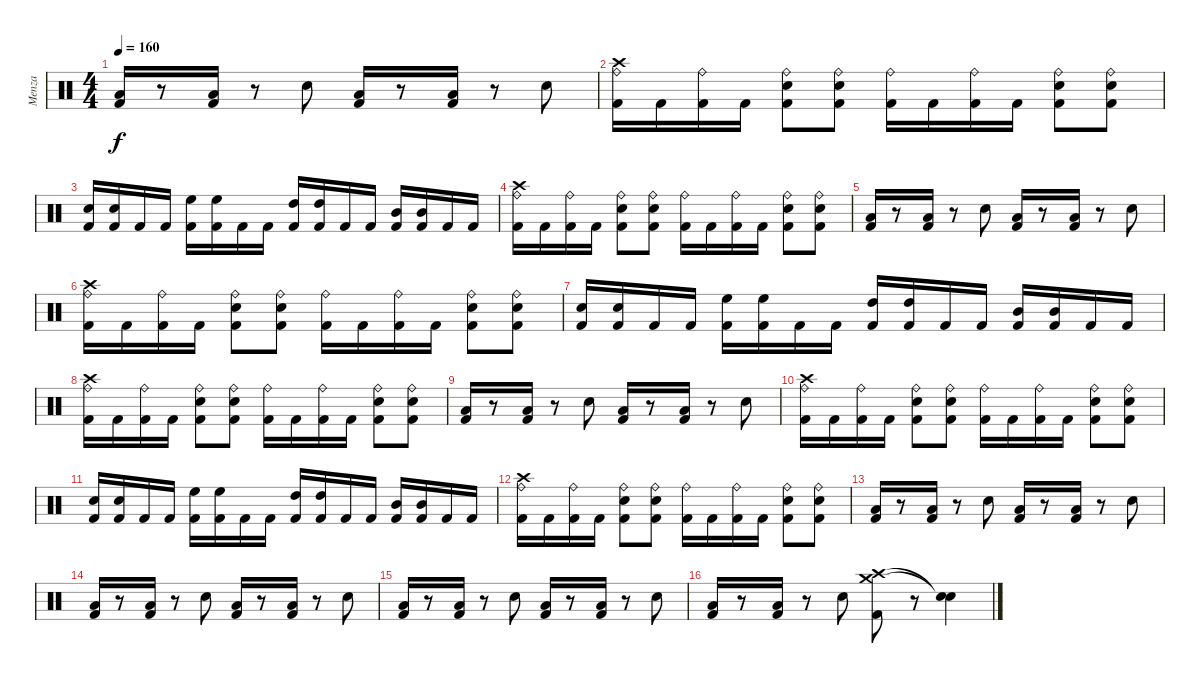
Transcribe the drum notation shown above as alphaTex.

\track ("Menza" "Menza") {instrument percussion}
\staff {score}
\articulation defaults
\ts (4 4)
\tempo 160
\clef neutral
\ks c
("Low Tom (hit)" "Kick (hit) 2").16{dy f} r.8 ("Low Tom (hit)" "Kick (hit) 2").16 r.8 "Snare (hit) 2".8 ("Low Tom (hit)" "Kick (hit) 2").16 r.8 ("Low Tom (hit)" "Kick (hit) 2").16 r.8 "Snare (hit) 2".8 |
("Crash high (hit)" "Ride (bell)" "Kick (hit) 2").16 "Kick (hit) 2".16 ("Ride (bell)" "Kick (hit) 2").16 "Kick (hit) 2".16 ("Ride (bell)" "Snare (hit) 2" "Kick (hit) 2").8 ("Ride (bell)" "Snare (hit) 2" "Kick (hit) 2").8 ("Ride (bell)" "Kick (hit) 2").16 "Kick (hit) 2".16 ("Ride (bell)" "Kick (hit) 2").16 "Kick (hit) 2".16 ("Ride (bell)" "Snare (hit) 2" "Kick (hit) 2").8 ("Ride (bell)" "Snare (hit) 2" "Kick (hit) 2").8 |
("Snare (hit) 2" "Kick (hit) 2").16 ("Snare (hit) 2" "Kick (hit) 2").16 "Kick (hit) 2".16 "Kick (hit) 2".16 ("High Floor Tom (hit)" "Kick (hit) 2").16 ("High Floor Tom (hit)" "Kick (hit) 2").16 "Kick (hit) 2".16 "Kick (hit) 2".16 ("High Tom (hit)" "Kick (hit) 2").16 ("High Tom (hit)" "Kick (hit) 2").16 "Kick (hit) 2".16 "Kick (hit) 2".16 ("Mid Tom (hit)" "Kick (hit) 2").16 ("Mid Tom (hit)" "Kick (hit) 2").16 "Kick (hit) 2".16 "Kick (hit) 2".16 |
("Crash high (hit)" "Ride (bell)" "Kick (hit) 2").16 "Kick (hit) 2".16 ("Ride (bell)" "Kick (hit) 2").16 "Kick (hit) 2".16 ("Ride (bell)" "Snare (hit) 2" "Kick (hit) 2").8 ("Ride (bell)" "Snare (hit) 2" "Kick (hit) 2").8 ("Ride (bell)" "Kick (hit) 2").16 "Kick (hit) 2".16 ("Ride (bell)" "Kick (hit) 2").16 "Kick (hit) 2".16 ("Ride (bell)" "Snare (hit) 2" "Kick (hit) 2").8 ("Ride (bell)" "Snare (hit) 2" "Kick (hit) 2").8 |
("Low Tom (hit)" "Kick (hit) 2").16 r.8 ("Low Tom (hit)" "Kick (hit) 2").16 r.8 "Snare (hit) 2".8 ("Low Tom (hit)" "Kick (hit) 2").16 r.8 ("Low Tom (hit)" "Kick (hit) 2").16 r.8 "Snare (hit) 2".8 |
("Crash high (hit)" "Ride (bell)" "Kick (hit) 2").16 "Kick (hit) 2".16 ("Ride (bell)" "Kick (hit) 2").16 "Kick (hit) 2".16 ("Ride (bell)" "Snare (hit) 2" "Kick (hit) 2").8 ("Ride (bell)" "Snare (hit) 2" "Kick (hit) 2").8 ("Ride (bell)" "Kick (hit) 2").16 "Kick (hit) 2".16 ("Ride (bell)" "Kick (hit) 2").16 "Kick (hit) 2".16 ("Ride (bell)" "Snare (hit) 2" "Kick (hit) 2").8 ("Ride (bell)" "Snare (hit) 2" "Kick (hit) 2").8 |
("Snare (hit) 2" "Kick (hit) 2").16 ("Snare (hit) 2" "Kick (hit) 2").16 "Kick (hit) 2".16 "Kick (hit) 2".16 ("High Floor Tom (hit)" "Kick (hit) 2").16 ("High Floor Tom (hit)" "Kick (hit) 2").16 "Kick (hit) 2".16 "Kick (hit) 2".16 ("High Tom (hit)" "Kick (hit) 2").16 ("High Tom (hit)" "Kick (hit) 2").16 "Kick (hit) 2".16 "Kick (hit) 2".16 ("Mid Tom (hit)" "Kick (hit) 2").16 ("Mid Tom (hit)" "Kick (hit) 2").16 "Kick (hit) 2".16 "Kick (hit) 2".16 |
("Crash high (hit)" "Ride (bell)" "Kick (hit) 2").16 "Kick (hit) 2".16 ("Ride (bell)" "Kick (hit) 2").16 "Kick (hit) 2".16 ("Ride (bell)" "Snare (hit) 2" "Kick (hit) 2").8 ("Ride (bell)" "Snare (hit) 2" "Kick (hit) 2").8 ("Ride (bell)" "Kick (hit) 2").16 "Kick (hit) 2".16 ("Ride (bell)" "Kick (hit) 2").16 "Kick (hit) 2".16 ("Ride (bell)" "Snare (hit) 2" "Kick (hit) 2").8 ("Ride (bell)" "Snare (hit) 2" "Kick (hit) 2").8 |
("Low Tom (hit)" "Kick (hit) 2").16 r.8 ("Low Tom (hit)" "Kick (hit) 2").16 r.8 "Snare (hit) 2".8 ("Low Tom (hit)" "Kick (hit) 2").16 r.8 ("Low Tom (hit)" "Kick (hit) 2").16 r.8 "Snare (hit) 2".8 |
("Crash high (hit)" "Ride (bell)" "Kick (hit) 2").16 "Kick (hit) 2".16 ("Ride (bell)" "Kick (hit) 2").16 "Kick (hit) 2".16 ("Ride (bell)" "Snare (hit) 2" "Kick (hit) 2").8 ("Ride (bell)" "Snare (hit) 2" "Kick (hit) 2").8 ("Ride (bell)" "Kick (hit) 2").16 "Kick (hit) 2".16 ("Ride (bell)" "Kick (hit) 2").16 "Kick (hit) 2".16 ("Ride (bell)" "Snare (hit) 2" "Kick (hit) 2").8 ("Ride (bell)" "Snare (hit) 2" "Kick (hit) 2").8 |
("Snare (hit) 2" "Kick (hit) 2").16 ("Snare (hit) 2" "Kick (hit) 2").16 "Kick (hit) 2".16 "Kick (hit) 2".16 ("High Floor Tom (hit)" "Kick (hit) 2").16 ("High Floor Tom (hit)" "Kick (hit) 2").16 "Kick (hit) 2".16 "Kick (hit) 2".16 ("High Tom (hit)" "Kick (hit) 2").16 ("High Tom (hit)" "Kick (hit) 2").16 "Kick (hit) 2".16 "Kick (hit) 2".16 ("Mid Tom (hit)" "Kick (hit) 2").16 ("Mid Tom (hit)" "Kick (hit) 2").16 "Kick (hit) 2".16 "Kick (hit) 2".16 |
("Crash high (hit)" "Ride (bell)" "Kick (hit) 2").16 "Kick (hit) 2".16 ("Ride (bell)" "Kick (hit) 2").16 "Kick (hit) 2".16 ("Ride (bell)" "Snare (hit) 2" "Kick (hit) 2").8 ("Ride (bell)" "Snare (hit) 2" "Kick (hit) 2").8 ("Ride (bell)" "Kick (hit) 2").16 "Kick (hit) 2".16 ("Ride (bell)" "Kick (hit) 2").16 "Kick (hit) 2".16 ("Ride (bell)" "Snare (hit) 2" "Kick (hit) 2").8 ("Ride (bell)" "Snare (hit) 2" "Kick (hit) 2").8 |
("Low Tom (hit)" "Kick (hit) 2").16 r.8 ("Low Tom (hit)" "Kick (hit) 2").16 r.8 "Snare (hit) 2".8 ("Low Tom (hit)" "Kick (hit) 2").16 r.8 ("Low Tom (hit)" "Kick (hit) 2").16 r.8 "Snare (hit) 2".8 |
("Low Tom (hit)" "Kick (hit) 2").16 r.8 ("Low Tom (hit)" "Kick (hit) 2").16 r.8 "Snare (hit) 2".8 ("Low Tom (hit)" "Kick (hit) 2").16 r.8 ("Low Tom (hit)" "Kick (hit) 2").16 r.8 "Snare (hit) 2".8 |
("Low Tom (hit)" "Kick (hit) 2").16 r.8 ("Low Tom (hit)" "Kick (hit) 2").16 r.8 "Snare (hit) 2".8 ("Low Tom (hit)" "Kick (hit) 2").16 r.8 ("Low Tom (hit)" "Kick (hit) 2").16 r.8 "Snare (hit) 2".8 |
("Low Tom (hit)" "Kick (hit) 2").16 r.8 ("Low Tom (hit)" "Kick (hit) 2").16 r.8 "Snare (hit) 2".8 ("Crash high (hit)" "Crash medium (hit)" "Kick (hit) 2").8 r.8 ("Snare (hit)"{t} "Snare (hit)"{t}).4
